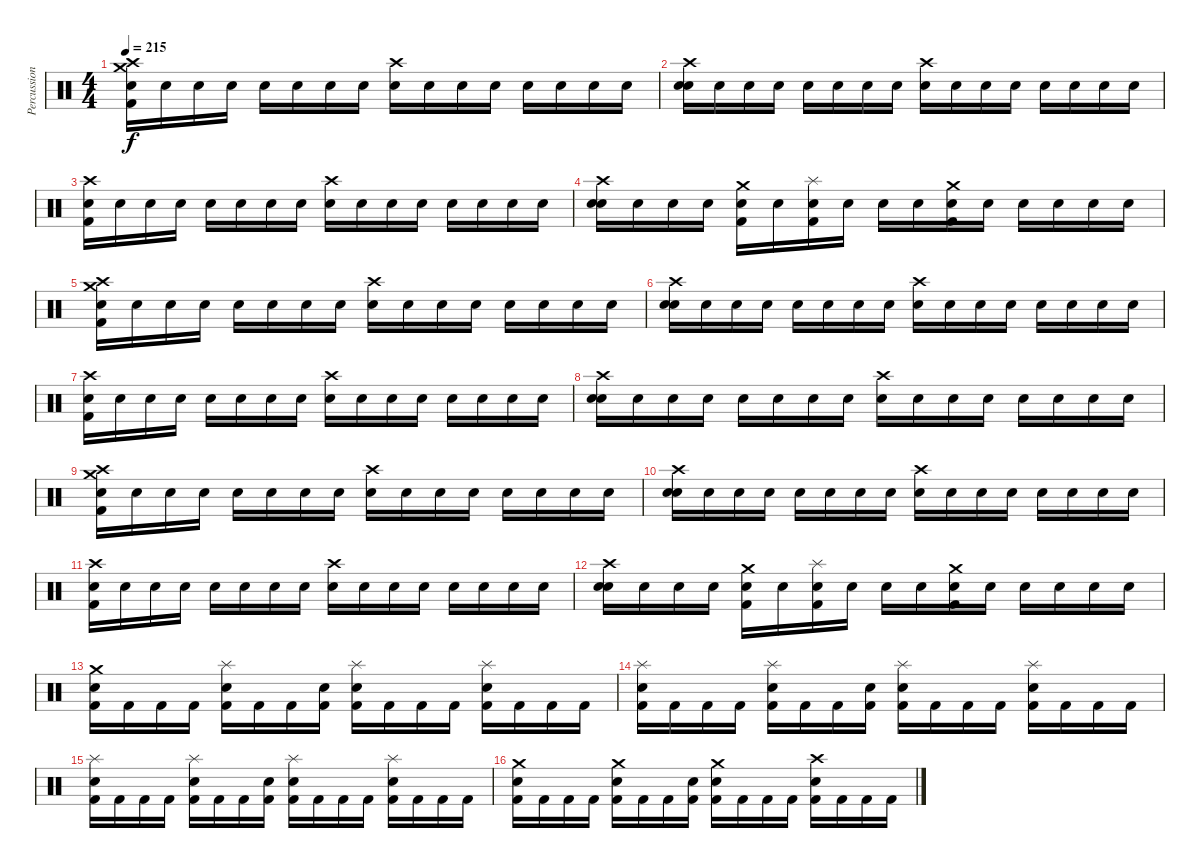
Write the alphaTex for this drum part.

\track ("Percussion" "Percussion") {instrument percussion}
\staff {score}
\articulation defaults
\ts (4 4)
\tempo 215
\clef neutral
\ks c
("Crash high (hit)" "Crash medium (hit)" "Kick (hit) 2" "Snare (hit)").16{dy f} "Snare (hit)".16 "Snare (hit)".16 "Snare (hit)".16 "Snare (hit)".16 "Snare (hit)".16 "Snare (hit)".16 "Snare (hit)".16 ("Crash high (hit)" "Snare (hit)").16 "Snare (hit)".16 "Snare (hit)".16 "Snare (hit)".16 "Snare (hit)".16 "Snare (hit)".16 "Snare (hit)".16 "Snare (hit)".16 |
("Crash high (hit)" "Snare (hit) 2" "Snare (hit)").16 "Snare (hit)".16 "Snare (hit)".16 "Snare (hit)".16 "Snare (hit)".16 "Snare (hit)".16 "Snare (hit)".16 "Snare (hit)".16 ("Crash high (hit)" "Snare (hit)").16 "Snare (hit)".16 "Snare (hit)".16 "Snare (hit)".16 "Snare (hit)".16 "Snare (hit)".16 "Snare (hit)".16 "Snare (hit)".16 |
("Crash high (hit)" "Kick (hit) 2" "Snare (hit)").16 "Snare (hit)".16 "Snare (hit)".16 "Snare (hit)".16 "Snare (hit)".16 "Snare (hit)".16 "Snare (hit)".16 "Snare (hit)".16 ("Crash high (hit)" "Snare (hit)").16 "Snare (hit)".16 "Snare (hit)".16 "Snare (hit)".16 "Snare (hit)".16 "Snare (hit)".16 "Snare (hit)".16 "Snare (hit)".16 |
("Crash high (hit)" "Snare (hit) 2" "Snare (hit)").16 "Snare (hit)".16 "Snare (hit)".16 "Snare (hit)".16 ("Crash medium (hit)" "Kick (hit) 2" "Snare (hit)").16 "Snare (hit)".16 ("Splash (hit)" "Kick (hit) 2" "Snare (hit)").16 "Snare (hit)".16 "Snare (hit)".16 "Snare (hit)".16 ("Crash medium (hit)" "Kick (hit) 2" "Snare (hit)").16 "Snare (hit)".16 "Snare (hit)".16 "Snare (hit)".16 "Snare (hit)".16 "Snare (hit)".16 |
("Crash high (hit)" "Crash medium (hit)" "Kick (hit) 2" "Snare (hit)").16 "Snare (hit)".16 "Snare (hit)".16 "Snare (hit)".16 "Snare (hit)".16 "Snare (hit)".16 "Snare (hit)".16 "Snare (hit)".16 ("Crash high (hit)" "Snare (hit)").16 "Snare (hit)".16 "Snare (hit)".16 "Snare (hit)".16 "Snare (hit)".16 "Snare (hit)".16 "Snare (hit)".16 "Snare (hit)".16 |
("Crash high (hit)" "Snare (hit) 2" "Snare (hit)").16 "Snare (hit)".16 "Snare (hit)".16 "Snare (hit)".16 "Snare (hit)".16 "Snare (hit)".16 "Snare (hit)".16 "Snare (hit)".16 ("Crash high (hit)" "Snare (hit)").16 "Snare (hit)".16 "Snare (hit)".16 "Snare (hit)".16 "Snare (hit)".16 "Snare (hit)".16 "Snare (hit)".16 "Snare (hit)".16 |
("Crash high (hit)" "Kick (hit) 2" "Snare (hit)").16 "Snare (hit)".16 "Snare (hit)".16 "Snare (hit)".16 "Snare (hit)".16 "Snare (hit)".16 "Snare (hit)".16 "Snare (hit)".16 ("Crash high (hit)" "Snare (hit)").16 "Snare (hit)".16 "Snare (hit)".16 "Snare (hit)".16 "Snare (hit)".16 "Snare (hit)".16 "Snare (hit)".16 "Snare (hit)".16 |
("Crash high (hit)" "Snare (hit) 2" "Snare (hit)").16 "Snare (hit)".16 "Snare (hit)".16 "Snare (hit)".16 "Snare (hit)".16 "Snare (hit)".16 "Snare (hit)".16 "Snare (hit)".16 ("Crash high (hit)" "Snare (hit)").16 "Snare (hit)".16 "Snare (hit)".16 "Snare (hit)".16 "Snare (hit)".16 "Snare (hit)".16 "Snare (hit)".16 "Snare (hit)".16 |
("Crash high (hit)" "Crash medium (hit)" "Kick (hit) 2" "Snare (hit)").16 "Snare (hit)".16 "Snare (hit)".16 "Snare (hit)".16 "Snare (hit)".16 "Snare (hit)".16 "Snare (hit)".16 "Snare (hit)".16 ("Crash high (hit)" "Snare (hit)").16 "Snare (hit)".16 "Snare (hit)".16 "Snare (hit)".16 "Snare (hit)".16 "Snare (hit)".16 "Snare (hit)".16 "Snare (hit)".16 |
("Crash high (hit)" "Snare (hit) 2" "Snare (hit)").16 "Snare (hit)".16 "Snare (hit)".16 "Snare (hit)".16 "Snare (hit)".16 "Snare (hit)".16 "Snare (hit)".16 "Snare (hit)".16 ("Crash high (hit)" "Snare (hit)").16 "Snare (hit)".16 "Snare (hit)".16 "Snare (hit)".16 "Snare (hit)".16 "Snare (hit)".16 "Snare (hit)".16 "Snare (hit)".16 |
("Crash high (hit)" "Kick (hit) 2" "Snare (hit)").16 "Snare (hit)".16 "Snare (hit)".16 "Snare (hit)".16 "Snare (hit)".16 "Snare (hit)".16 "Snare (hit)".16 "Snare (hit)".16 ("Crash high (hit)" "Snare (hit)").16 "Snare (hit)".16 "Snare (hit)".16 "Snare (hit)".16 "Snare (hit)".16 "Snare (hit)".16 "Snare (hit)".16 "Snare (hit)".16 |
("Crash high (hit)" "Snare (hit) 2" "Snare (hit)").16 "Snare (hit)".16 "Snare (hit)".16 "Snare (hit)".16 ("Crash medium (hit)" "Kick (hit) 2" "Snare (hit)").16 "Snare (hit)".16 ("Splash (hit)" "Kick (hit) 2" "Snare (hit)").16 "Snare (hit)".16 "Snare (hit)".16 "Snare (hit)".16 ("Crash medium (hit)" "Kick (hit) 2" "Snare (hit)").16 "Snare (hit)".16 "Snare (hit)".16 "Snare (hit)".16 "Snare (hit)".16 "Snare (hit)".16 |
("Crash medium (hit)" "Snare (hit) 2" "Kick (hit) 2").16 "Kick (hit) 2".16 "Kick (hit) 2".16 "Kick (hit) 2".16 ("Splash (hit)" "Snare (hit) 2" "Kick (hit) 2").16 "Kick (hit) 2".16 "Kick (hit) 2".16 ("Snare (hit)" "Kick (hit) 2").16 ("Splash (hit)" "Snare (hit) 2" "Kick (hit) 2").16 "Kick (hit) 2".16 "Kick (hit) 2".16 "Kick (hit) 2".16 ("Splash (hit)" "Snare (hit) 2" "Kick (hit) 2").16 "Kick (hit) 2".16 "Kick (hit) 2".16 "Kick (hit) 2".16 |
("Splash (hit)" "Snare (hit) 2" "Kick (hit) 2").16 "Kick (hit) 2".16 "Kick (hit) 2".16 "Kick (hit) 2".16 ("Splash (hit)" "Snare (hit) 2" "Kick (hit) 2").16 "Kick (hit) 2".16 "Kick (hit) 2".16 ("Snare (hit)" "Kick (hit) 2").16 ("Splash (hit)" "Snare (hit) 2" "Kick (hit) 2").16 "Kick (hit) 2".16 "Kick (hit) 2".16 "Kick (hit) 2".16 ("Splash (hit)" "Snare (hit) 2" "Kick (hit) 2").16 "Kick (hit) 2".16 "Kick (hit) 2".16 "Kick (hit) 2".16 |
("Splash (hit)" "Snare (hit) 2" "Kick (hit) 2").16 "Kick (hit) 2".16 "Kick (hit) 2".16 "Kick (hit) 2".16 ("Splash (hit)" "Snare (hit) 2" "Kick (hit) 2").16 "Kick (hit) 2".16 "Kick (hit) 2".16 ("Snare (hit)" "Kick (hit) 2").16 ("Splash (hit)" "Snare (hit) 2" "Kick (hit) 2").16 "Kick (hit) 2".16 "Kick (hit) 2".16 "Kick (hit) 2".16 ("Splash (hit)" "Snare (hit) 2" "Kick (hit) 2").16 "Kick (hit) 2".16 "Kick (hit) 2".16 "Kick (hit) 2".16 |
("Crash medium (hit)" "Snare (hit) 2" "Kick (hit) 2").16 "Kick (hit) 2".16 "Kick (hit) 2".16 "Kick (hit) 2".16 ("Crash medium (hit)" "Snare (hit) 2" "Kick (hit) 2").16 "Kick (hit) 2".16 "Kick (hit) 2".16 ("Snare (hit)" "Kick (hit) 2").16 ("Crash medium (hit)" "Snare (hit) 2" "Kick (hit) 2").16 "Kick (hit) 2".16 "Kick (hit) 2".16 "Kick (hit) 2".16 ("Crash high (hit)" "Snare (hit) 2" "Kick (hit) 2").16 "Kick (hit) 2".16 "Kick (hit) 2".16 "Kick (hit) 2".16
